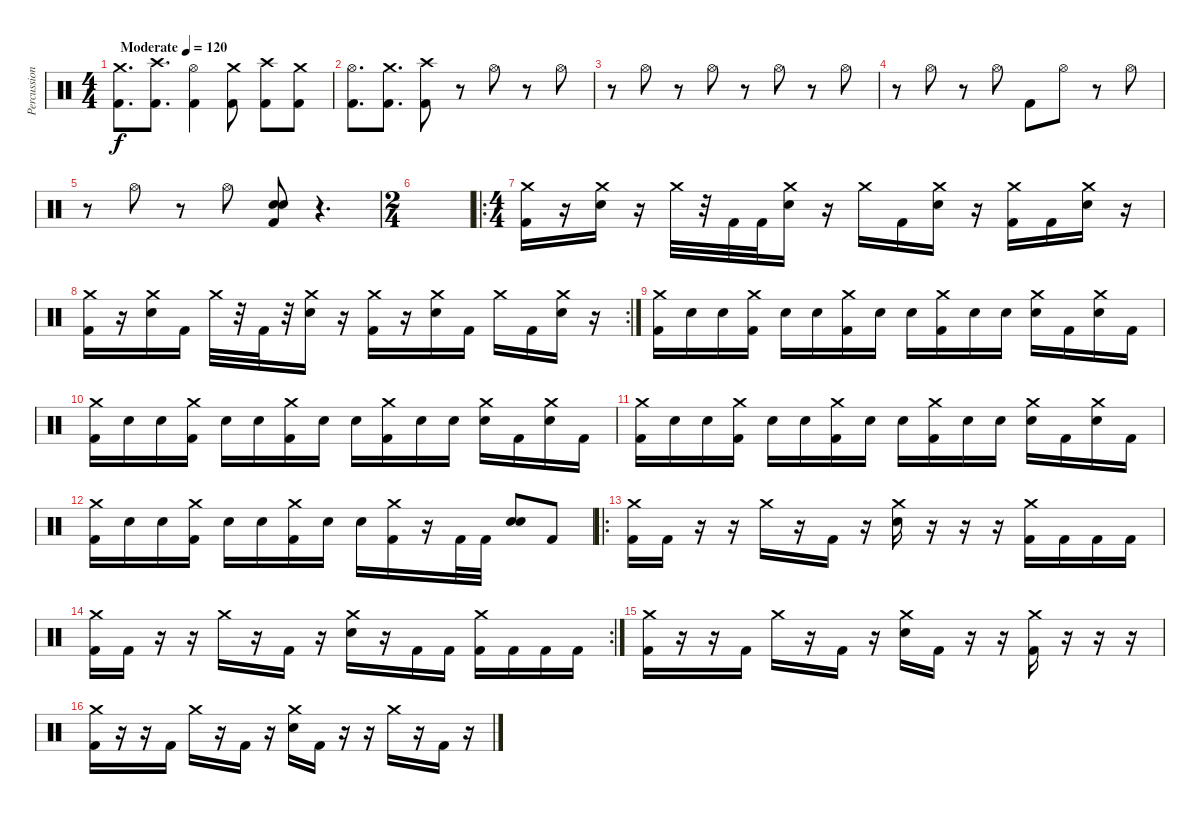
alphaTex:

\track ("Percussion" "Percussion") {instrument percussion}
\staff {score}
\articulation defaults
\ts (4 4)
\tempo (120 "Moderate")
\clef neutral
\ks c
("Crash medium (hit)" "Kick (hit) 2").8{d dy f} ("Crash high (hit)" "Kick (hit) 2").8{d} ("Hi-Hat (open)" "Kick (hit) 2").4 ("Crash medium (hit)" "Kick (hit) 2").8 ("Crash high (hit)" "Kick (hit) 2").8 ("Crash medium (hit)" "Kick (hit) 2").8 |
("Hi-Hat (open)" "Kick (hit) 2").8{d} ("Crash medium (hit)" "Kick (hit) 2").8{d} ("Crash high (hit)" "Kick (hit) 2").8 r.8 "Hi-Hat (open)".8 r.8 "Hi-Hat (open)".8 |
r.8 "Hi-Hat (open)".8 r.8 "Hi-Hat (open)".8 r.8 "Hi-Hat (open)".8 r.8 "Hi-Hat (open)".8 |
r.8 "Hi-Hat (open)".8 r.8 "Hi-Hat (open)".8 "Kick (hit) 2".8 "Hi-Hat (open)".8 r.8 "Hi-Hat (open)".8 |
r.8 "Hi-Hat (open)".8 r.8 "Hi-Hat (open)".8 ("Electric Snare (hit)" "Electric Snare (hit)" "Kick (hit) 2").8 r.4{d} |
\ts (2 4)
|
\ro
\ts (4 4)
("Crash medium (hit)" "Kick (hit) 2").16 r.16 ("Crash medium (hit)" "Electric Snare (hit)").16 r.16 "Crash medium (hit)".32 r.32 "Kick (hit) 2".32 "Kick (hit) 2".32 ("Crash medium (hit)" "Electric Snare (hit)").16 r.16 "Crash medium (hit)".16 "Kick (hit) 2".16 ("Crash medium (hit)" "Electric Snare (hit)").16 r.16 ("Crash medium (hit)" "Kick (hit) 2").16 "Kick (hit) 2".16 ("Crash medium (hit)" "Electric Snare (hit)").16 r.16 |
\rc 2
("Crash medium (hit)" "Kick (hit) 2").16 r.16 ("Crash medium (hit)" "Electric Snare (hit)").16 "Kick (hit) 2".16 "Crash medium (hit)".32 r.32 "Kick (hit) 2".32 r.32 ("Crash medium (hit)" "Electric Snare (hit)").16 r.16 ("Crash medium (hit)" "Kick (hit) 2").16 r.16 ("Crash medium (hit)" "Electric Snare (hit)").16 "Kick (hit) 2".16 "Crash medium (hit)".16 "Kick (hit) 2".16 ("Crash medium (hit)" "Electric Snare (hit)").16 r.16 |
("Crash medium (hit)" "Kick (hit) 2").16 "Electric Snare (hit)".16 "Electric Snare (hit)".16 ("Crash medium (hit)" "Kick (hit) 2").16 "Electric Snare (hit)".16 "Electric Snare (hit)".16 ("Crash medium (hit)" "Kick (hit) 2").16 "Electric Snare (hit)".16 "Electric Snare (hit)".16 ("Crash medium (hit)" "Kick (hit) 2").16 "Electric Snare (hit)".16 "Electric Snare (hit)".16 ("Crash medium (hit)" "Electric Snare (hit)").16 "Kick (hit) 2".16 ("Crash medium (hit)" "Electric Snare (hit)").16 "Kick (hit) 2".16 |
("Crash medium (hit)" "Kick (hit) 2").16 "Electric Snare (hit)".16 "Electric Snare (hit)".16 ("Crash medium (hit)" "Kick (hit) 2").16 "Electric Snare (hit)".16 "Electric Snare (hit)".16 ("Crash medium (hit)" "Kick (hit) 2").16 "Electric Snare (hit)".16 "Electric Snare (hit)".16 ("Crash medium (hit)" "Kick (hit) 2").16 "Electric Snare (hit)".16 "Electric Snare (hit)".16 ("Crash medium (hit)" "Electric Snare (hit)").16 "Kick (hit) 2".16 ("Crash medium (hit)" "Electric Snare (hit)").16 "Kick (hit) 2".16 |
("Crash medium (hit)" "Kick (hit) 2").16 "Electric Snare (hit)".16 "Electric Snare (hit)".16 ("Crash medium (hit)" "Kick (hit) 2").16 "Electric Snare (hit)".16 "Electric Snare (hit)".16 ("Crash medium (hit)" "Kick (hit) 2").16 "Electric Snare (hit)".16 "Electric Snare (hit)".16 ("Crash medium (hit)" "Kick (hit) 2").16 "Electric Snare (hit)".16 "Electric Snare (hit)".16 ("Crash medium (hit)" "Electric Snare (hit)").16 "Kick (hit) 2".16 ("Crash medium (hit)" "Electric Snare (hit)").16 "Kick (hit) 2".16 |
("Crash medium (hit)" "Kick (hit) 2").16 "Electric Snare (hit)".16 "Electric Snare (hit)".16 ("Crash medium (hit)" "Kick (hit) 2").16 "Electric Snare (hit)".16 "Electric Snare (hit)".16 ("Crash medium (hit)" "Kick (hit) 2").16 "Electric Snare (hit)".16 "Electric Snare (hit)".16 ("Crash medium (hit)" "Kick (hit) 2").16 r.16 "Kick (hit) 2".32 "Kick (hit) 2".32 ("Electric Snare (hit)" "Electric Snare (hit)").8{bu 60} "Kick (hit) 2".8 |
\ro
("Crash medium (hit)" "Kick (hit) 2").16 "Kick (hit) 2".16 r.16 r.16 "Crash medium (hit)".16 r.16 "Kick (hit) 2".16 r.16 ("Crash medium (hit)" "Electric Snare (hit)").16 r.16 r.16 r.16 ("Crash medium (hit)" "Kick (hit) 2").16 "Kick (hit) 2".16 "Kick (hit) 2".16 "Kick (hit) 2".16 |
\rc 2
("Crash medium (hit)" "Kick (hit) 2").16 "Kick (hit) 2".16 r.16 r.16 "Crash medium (hit)".16 r.16 "Kick (hit) 2".16 r.16 ("Crash medium (hit)" "Electric Snare (hit)").16 r.16 "Kick (hit) 2".16 "Kick (hit) 2".16 ("Crash medium (hit)" "Kick (hit) 2").16 "Kick (hit) 2".16 "Kick (hit) 2".16 "Kick (hit) 2".16 |
("Crash medium (hit)" "Kick (hit) 2").16 r.16 r.16 "Kick (hit) 2".16 "Crash medium (hit)".16 r.16 "Kick (hit) 2".16 r.16 ("Crash medium (hit)" "Electric Snare (hit)").16 "Kick (hit) 2".16 r.16 r.16 ("Crash medium (hit)" "Kick (hit) 2").16 r.16 r.16 r.16 |
("Crash medium (hit)" "Kick (hit) 2").16 r.16 r.16 "Kick (hit) 2".16 "Crash medium (hit)".16 r.16 "Kick (hit) 2".16 r.16 ("Crash medium (hit)" "Electric Snare (hit)").16 "Kick (hit) 2".16 r.16 r.16 "Crash medium (hit)".16 r.16 "Kick (hit) 2".16 r.16
